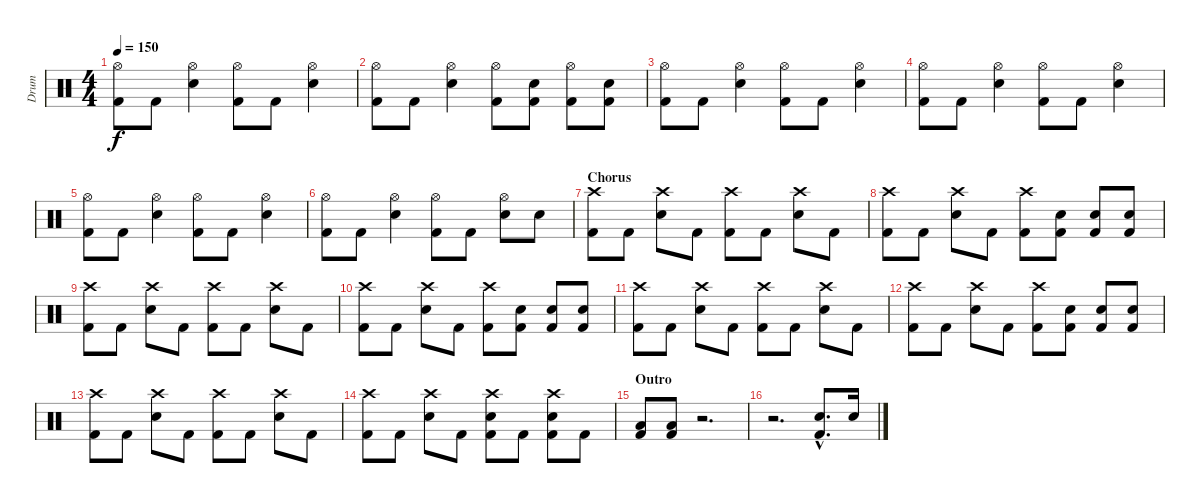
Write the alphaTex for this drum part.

\track ("Drum" "Drum") {instrument percussion}
\staff {score}
\articulation defaults
\ts (4 4)
\tempo 150
\clef neutral
\ks c
("Hi-Hat (open)" "Kick (hit) 2").8{dy f} "Kick (hit) 2".8 ("Hi-Hat (open)" "Snare (hit) 2").4 ("Hi-Hat (open)" "Kick (hit) 2").8 "Kick (hit) 2".8 ("Hi-Hat (open)" "Snare (hit) 2").4 |
("Hi-Hat (open)" "Kick (hit) 2").8 "Kick (hit) 2".8 ("Hi-Hat (open)" "Snare (hit) 2").4 ("Hi-Hat (open)" "Kick (hit) 2").8 ("Snare (hit) 2" "Kick (hit) 2").8 ("Hi-Hat (open)" "Kick (hit) 2").8 ("Snare (hit) 2" "Kick (hit) 2").8 |
("Hi-Hat (open)" "Kick (hit) 2").8 "Kick (hit) 2".8 ("Hi-Hat (open)" "Snare (hit) 2").4 ("Hi-Hat (open)" "Kick (hit) 2").8 "Kick (hit) 2".8 ("Hi-Hat (open)" "Snare (hit) 2").4 |
("Hi-Hat (open)" "Kick (hit) 2").8 "Kick (hit) 2".8 ("Hi-Hat (open)" "Snare (hit) 2").4 ("Hi-Hat (open)" "Kick (hit) 2").8 "Kick (hit) 2".8 ("Hi-Hat (open)" "Snare (hit) 2").4 |
("Hi-Hat (open)" "Kick (hit) 2").8 "Kick (hit) 2".8 ("Hi-Hat (open)" "Snare (hit) 2").4 ("Hi-Hat (open)" "Kick (hit) 2").8 "Kick (hit) 2".8 ("Hi-Hat (open)" "Snare (hit) 2").4 |
("Hi-Hat (open)" "Kick (hit) 2").8 "Kick (hit) 2".8 ("Hi-Hat (open)" "Snare (hit) 2").4 ("Hi-Hat (open)" "Kick (hit) 2").8 "Kick (hit) 2".8 ("Hi-Hat (open)" "Snare (hit) 2").8 "Snare (hit) 2".8 |
\section ("" "Chorus")
("Crash high (hit)" "Kick (hit) 2").8 "Kick (hit) 2".8 ("Crash high (hit)" "Snare (hit) 2").8 "Kick (hit) 2".8 ("Crash high (hit)" "Kick (hit) 2").8 "Kick (hit) 2".8 ("Crash high (hit)" "Snare (hit) 2").8 "Kick (hit) 2".8 |
("Crash high (hit)" "Kick (hit) 2").8 "Kick (hit) 2".8 ("Crash high (hit)" "Snare (hit) 2").8 "Kick (hit) 2".8 ("Crash high (hit)" "Kick (hit) 2").8 ("Snare (hit) 2" "Kick (hit) 2").8 ("Snare (hit) 2" "Kick (hit) 2").8 ("Snare (hit) 2" "Kick (hit) 2").8 |
("Crash high (hit)" "Kick (hit) 2").8 "Kick (hit) 2".8 ("Crash high (hit)" "Snare (hit) 2").8 "Kick (hit) 2".8 ("Crash high (hit)" "Kick (hit) 2").8 "Kick (hit) 2".8 ("Crash high (hit)" "Snare (hit) 2").8 "Kick (hit) 2".8 |
("Crash high (hit)" "Kick (hit) 2").8 "Kick (hit) 2".8 ("Crash high (hit)" "Snare (hit) 2").8 "Kick (hit) 2".8 ("Crash high (hit)" "Kick (hit) 2").8 ("Snare (hit) 2" "Kick (hit) 2").8 ("Snare (hit) 2" "Kick (hit) 2").8 ("Snare (hit) 2" "Kick (hit) 2").8 |
("Crash high (hit)" "Kick (hit) 2").8 "Kick (hit) 2".8 ("Crash high (hit)" "Snare (hit) 2").8 "Kick (hit) 2".8 ("Crash high (hit)" "Kick (hit) 2").8 "Kick (hit) 2".8 ("Crash high (hit)" "Snare (hit) 2").8 "Kick (hit) 2".8 |
("Crash high (hit)" "Kick (hit) 2").8 "Kick (hit) 2".8 ("Crash high (hit)" "Snare (hit) 2").8 "Kick (hit) 2".8 ("Crash high (hit)" "Kick (hit) 2").8 ("Snare (hit) 2" "Kick (hit) 2").8 ("Snare (hit) 2" "Kick (hit) 2").8 ("Snare (hit) 2" "Kick (hit) 2").8 |
("Crash high (hit)" "Kick (hit) 2").8 "Kick (hit) 2".8 ("Crash high (hit)" "Snare (hit) 2").8 "Kick (hit) 2".8 ("Crash high (hit)" "Kick (hit) 2").8 "Kick (hit) 2".8 ("Crash high (hit)" "Snare (hit) 2").8 "Kick (hit) 2".8 |
("Crash high (hit)" "Kick (hit) 2").8 "Kick (hit) 2".8 ("Crash high (hit)" "Snare (hit) 2").8 "Kick (hit) 2".8 ("Crash high (hit)" "Snare (hit) 2" "Kick (hit) 2").8 "Kick (hit) 2".8 ("Crash high (hit)" "Snare (hit) 2" "Kick (hit) 2").8 "Kick (hit) 2".8 |
\section ("" "Outro")
("Low Floor Tom (hit)" "Kick (hit) 2").8 ("Low Floor Tom (hit)" "Kick (hit) 2").8 r.2{d} |
r.2{d} ("Snare (hit) 2"{hac} "Kick (hit) 2"{hac}).8{d} "Snare (hit) 2".16
